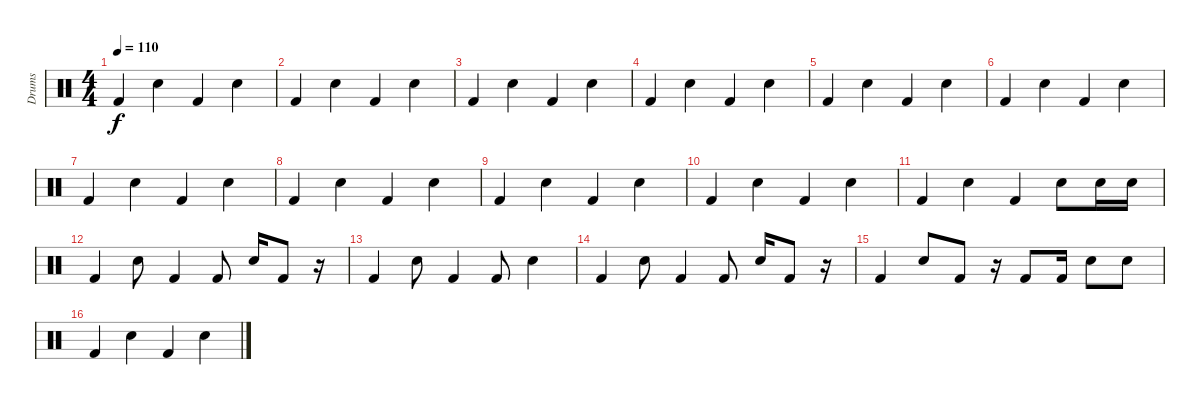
\track ("Drums" "Drums") {instrument percussion}
\staff {score}
\articulation defaults
\ts (4 4)
\tempo 110
\clef neutral
\ks c "Kick (hit) 2".4{dy f} "Electric Snare (hit)".4 "Kick (hit) 2".4 "Electric Snare (hit)".4
|
"Kick (hit) 2".4 "Electric Snare (hit)".4 "Kick (hit) 2".4 "Electric Snare (hit)".4 |
"Kick (hit) 2".4 "Electric Snare (hit)".4 "Kick (hit) 2".4 "Electric Snare (hit)".4 |
"Kick (hit) 2".4 "Electric Snare (hit)".4 "Kick (hit) 2".4 "Electric Snare (hit)".4 |
"Kick (hit) 2".4 "Electric Snare (hit)".4 "Kick (hit) 2".4 "Electric Snare (hit)".4 |
"Kick (hit) 2".4 "Electric Snare (hit)".4 "Kick (hit) 2".4 "Electric Snare (hit)".4 |
"Kick (hit) 2".4 "Electric Snare (hit)".4 "Kick (hit) 2".4 "Electric Snare (hit)".4 |
"Kick (hit) 2".4 "Electric Snare (hit)".4 "Kick (hit) 2".4 "Electric Snare (hit)".4 |
"Kick (hit) 2".4 "Electric Snare (hit)".4 "Kick (hit) 2".4 "Electric Snare (hit)".4 |
"Kick (hit) 2".4 "Electric Snare (hit)".4 "Kick (hit) 2".4 "Electric Snare (hit)".4 |
"Kick (hit) 2".4 "Electric Snare (hit)".4 "Kick (hit) 2".4 "Electric Snare (hit)".8 "Electric Snare (hit)".16 "Electric Snare (hit)".16 |
"Kick (hit) 2".4 "Electric Snare (hit)".8 "Kick (hit) 2".4 "Kick (hit) 2".8 "Electric Snare (hit)".16 "Kick (hit) 2".8 r.16 |
"Kick (hit) 2".4 "Electric Snare (hit)".8 "Kick (hit) 2".4 "Kick (hit) 2".8 "Electric Snare (hit)".4 |
"Kick (hit) 2".4 "Electric Snare (hit)".8 "Kick (hit) 2".4 "Kick (hit) 2".8 "Electric Snare (hit)".16 "Kick (hit) 2".8 r.16 |
"Kick (hit) 2".4 "Electric Snare (hit)".8 "Kick (hit) 2".8 r.16 "Kick (hit) 2".8 "Kick (hit) 2".16 "Electric Snare (hit)".8 "Electric Snare (hit)".8 |
"Kick (hit) 2".4 "Electric Snare (hit)".4 "Kick (hit) 2".4 "Electric Snare (hit)".4
